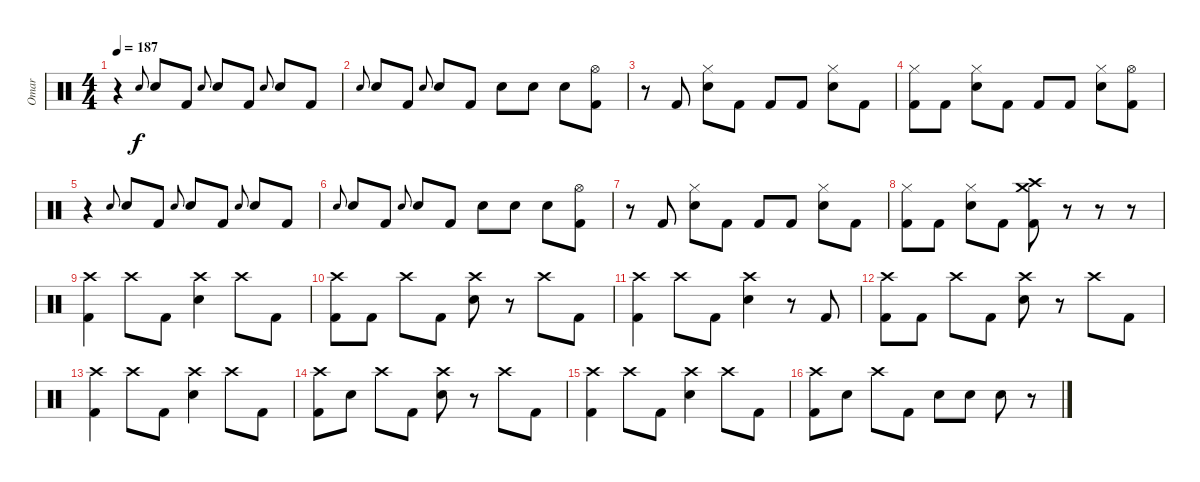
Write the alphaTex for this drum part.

\track ("Omar" "Omar") {instrument percussion}
\staff {score}
\articulation defaults
\ts (4 4)
\tempo 187
\clef neutral
\ks c
r.4{dy f} "Snare (hit) 2".8{gr onbeat} "Snare (hit) 2".8 "Kick (hit) 2".8 "Snare (hit) 2".8{gr onbeat} "Snare (hit) 2".8 "Kick (hit) 2".8 "Snare (hit) 2".8{gr onbeat} "Snare (hit) 2".8 "Kick (hit) 2".8 |
"Snare (hit) 2".8{gr onbeat} "Snare (hit) 2".8 "Kick (hit) 2".8 "Snare (hit) 2".8{gr onbeat} "Snare (hit) 2".8 "Kick (hit) 2".8 "Snare (hit) 2".8 "Snare (hit) 2".8 "Snare (hit) 2".8 ("Hi-Hat (open)" "Kick (hit) 2").8 |
r.8 "Kick (hit) 2".8 ("Hi-Hat (closed)" "Snare (hit) 2").8 "Kick (hit) 2".8 "Kick (hit) 2".8 "Kick (hit) 2".8 ("Hi-Hat (closed)" "Snare (hit) 2").8 "Kick (hit) 2".8 |
("Hi-Hat (closed)" "Kick (hit) 2").8 "Kick (hit) 2".8 ("Hi-Hat (closed)" "Snare (hit) 2").8 "Kick (hit) 2".8 "Kick (hit) 2".8 "Kick (hit) 2".8 ("Hi-Hat (closed)" "Snare (hit) 2").8 ("Hi-Hat (open)" "Kick (hit) 2").8 |
r.4 "Snare (hit) 2".8{gr onbeat} "Snare (hit) 2".8 "Kick (hit) 2".8 "Snare (hit) 2".8{gr onbeat} "Snare (hit) 2".8 "Kick (hit) 2".8 "Snare (hit) 2".8{gr onbeat} "Snare (hit) 2".8 "Kick (hit) 2".8 |
"Snare (hit) 2".8{gr onbeat} "Snare (hit) 2".8 "Kick (hit) 2".8 "Snare (hit) 2".8{gr onbeat} "Snare (hit) 2".8 "Kick (hit) 2".8 "Snare (hit) 2".8 "Snare (hit) 2".8 "Snare (hit) 2".8 ("Hi-Hat (open)" "Kick (hit) 2").8 |
r.8 "Kick (hit) 2".8 ("Hi-Hat (closed)" "Snare (hit) 2").8 "Kick (hit) 2".8 "Kick (hit) 2".8 "Kick (hit) 2".8 ("Hi-Hat (closed)" "Snare (hit) 2").8 "Kick (hit) 2".8 |
("Hi-Hat (closed)" "Kick (hit) 2").8 "Kick (hit) 2".8 ("Hi-Hat (closed)" "Snare (hit) 2").8 "Kick (hit) 2".8 ("Crash medium (hit)" "Crash high (hit)" "Kick (hit) 2").8 r.8 r.8 r.8 |
("Crash high (hit)" "Kick (hit) 2").4 "Crash high (hit)".8 "Kick (hit) 2".8 ("Crash high (hit)" "Snare (hit) 2").4 "Crash high (hit)".8 "Kick (hit) 2".8 |
("Crash high (hit)" "Kick (hit) 2").8 "Kick (hit) 2".8 "Crash high (hit)".8 "Kick (hit) 2".8 ("Crash high (hit)" "Snare (hit) 2").8 r.8 "Crash high (hit)".8 "Kick (hit) 2".8 |
("Crash high (hit)" "Kick (hit) 2").4 "Crash high (hit)".8 "Kick (hit) 2".8 ("Crash high (hit)" "Snare (hit) 2").4 r.8 "Kick (hit) 2".8 |
("Crash high (hit)" "Kick (hit) 2").8 "Kick (hit) 2".8 "Crash high (hit)".8 "Kick (hit) 2".8 ("Crash high (hit)" "Snare (hit) 2").8 r.8 "Crash high (hit)".8 "Kick (hit) 2".8 |
("Crash high (hit)" "Kick (hit) 2").4 "Crash high (hit)".8 "Kick (hit) 2".8 ("Crash high (hit)" "Snare (hit) 2").4 "Crash high (hit)".8 "Kick (hit) 2".8 |
("Crash high (hit)" "Kick (hit) 2").8 "Snare (hit) 2".8 "Crash high (hit)".8 "Kick (hit) 2".8 ("Crash high (hit)" "Snare (hit) 2").8 r.8 "Crash high (hit)".8 "Kick (hit) 2".8 |
("Crash high (hit)" "Kick (hit) 2").4 "Crash high (hit)".8 "Kick (hit) 2".8 ("Crash high (hit)" "Snare (hit) 2").4 "Crash high (hit)".8 "Kick (hit) 2".8 |
("Crash high (hit)" "Kick (hit) 2").8 "Snare (hit) 2".8 "Crash high (hit)".8 "Kick (hit) 2".8 "Snare (hit) 2".8 "Snare (hit) 2".8 "Snare (hit) 2".8 r.8
